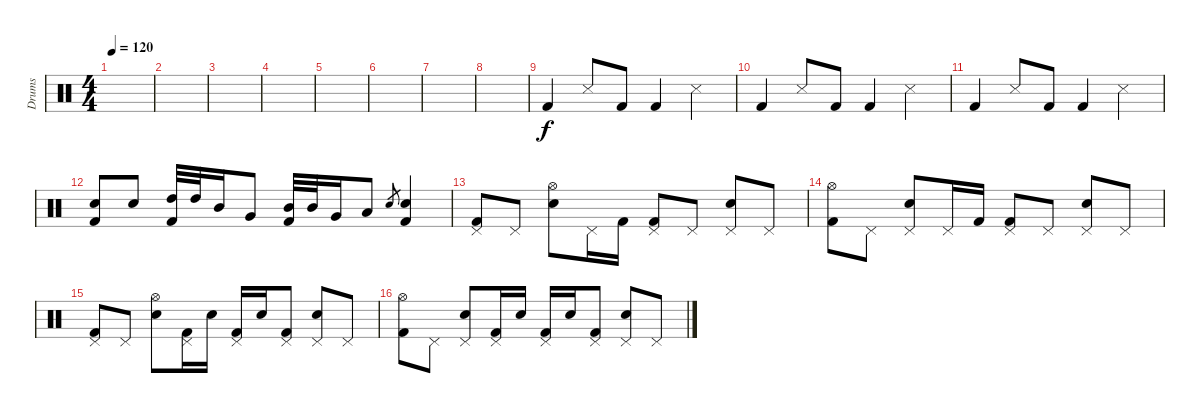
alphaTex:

\track ("Drums" "Drums") {instrument percussion}
\staff {score}
\articulation defaults
\ts (4 4)
\tempo 120
\clef neutral
\ks c
|
|
|
|
|
|
|
|
"Kick (hit) 2".4 "Snare (side stick) 3".8 "Kick (hit) 2".8 "Kick (hit) 2".4 "Snare (side stick) 3".4 |
"Kick (hit) 2".4 "Snare (side stick) 3".8 "Kick (hit) 2".8 "Kick (hit) 2".4 "Snare (side stick) 3".4 |
"Kick (hit) 2".4 "Snare (side stick) 3".8 "Kick (hit) 2".8 "Kick (hit) 2".4 "Snare (side stick) 3".4 |
("Electric Snare (hit)" "Kick (hit) 2").8 "Electric Snare (hit)".8 ("High Tom (hit)" "Kick (hit) 2").32 "High Tom (hit)".32 "Mid Tom (hit)".16 "Very Low Tom (hit)".8 ("Mid Tom (hit)" "Kick (hit) 2").32 "Mid Tom (hit)".32 "Very Low Tom (hit)".16 "Low Floor Tom (hit)".8 "Electric Snare (hit)".8{gr} ("Electric Snare (hit)" "Kick (hit) 2").4 |
("Pedal Hi-Hat (hit)" "Kick (hit) 2").8 "Pedal Hi-Hat (hit)".8 ("Hi-Hat (open)" "Electric Snare (hit)").8 "Pedal Hi-Hat (hit)".16 "Kick (hit) 2".16 ("Pedal Hi-Hat (hit)" "Kick (hit) 2").8 "Pedal Hi-Hat (hit)".8 ("Pedal Hi-Hat (hit)" "Electric Snare (hit)").8 "Pedal Hi-Hat (hit)".8 |
("Hi-Hat (open)" "Kick (hit) 2").8 "Pedal Hi-Hat (hit)".8 ("Pedal Hi-Hat (hit)" "Electric Snare (hit)").8 "Pedal Hi-Hat (hit)".16 "Kick (hit) 2".16 ("Pedal Hi-Hat (hit)" "Kick (hit) 2").8 "Pedal Hi-Hat (hit)".8 ("Pedal Hi-Hat (hit)" "Electric Snare (hit)").8 "Pedal Hi-Hat (hit)".8 |
("Pedal Hi-Hat (hit)" "Kick (hit) 2").8 "Pedal Hi-Hat (hit)".8 ("Hi-Hat (open)" "Electric Snare (hit)").8 ("Pedal Hi-Hat (hit)" "Kick (hit) 2").16 "Electric Snare (hit)".16 ("Pedal Hi-Hat (hit)" "Kick (hit) 2").16 "Electric Snare (hit)".16 ("Pedal Hi-Hat (hit)" "Kick (hit) 2").8 ("Pedal Hi-Hat (hit)" "Electric Snare (hit)").8 "Pedal Hi-Hat (hit)".8 |
("Hi-Hat (open)" "Kick (hit) 2").8 "Pedal Hi-Hat (hit)".8 ("Pedal Hi-Hat (hit)" "Electric Snare (hit)").8 ("Pedal Hi-Hat (hit)" "Kick (hit) 2").16 "Electric Snare (hit)".16 ("Pedal Hi-Hat (hit)" "Kick (hit) 2").16 "Electric Snare (hit)".16 ("Pedal Hi-Hat (hit)" "Kick (hit) 2").8 ("Pedal Hi-Hat (hit)" "Electric Snare (hit)").8 "Pedal Hi-Hat (hit)".8
